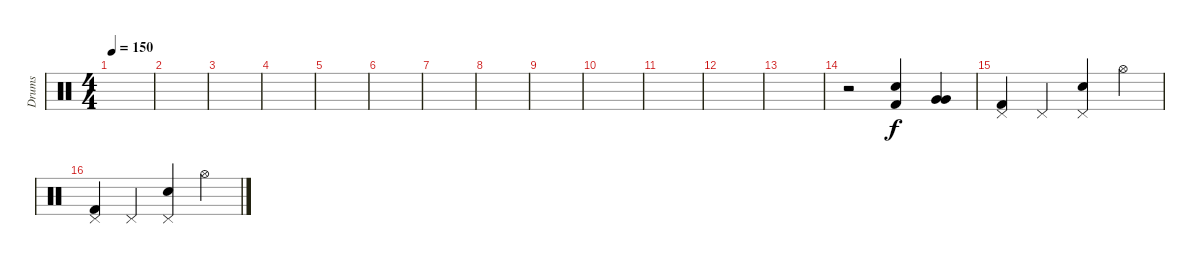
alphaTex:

\track ("Drums" "Drums") {instrument percussion}
\staff {score}
\articulation defaults
\ts (4 4)
\tempo 150
\clef neutral
\ks c
|
|
|
|
|
|
|
|
|
|
|
|
|
r.2 ("Electric Snare (hit)" "Kick (hit) 2").4 ("Very Low Tom (hit)" "Very Low Tom (hit)").4 |
("Pedal Hi-Hat (hit)" "Kick (hit) 2").4 "Pedal Hi-Hat (hit)".4 ("Pedal Hi-Hat (hit)" "Electric Snare (hit)").4 "Hi-Hat (open)".4 |
("Pedal Hi-Hat (hit)" "Kick (hit) 2").4 "Pedal Hi-Hat (hit)".4 ("Pedal Hi-Hat (hit)" "Electric Snare (hit)").4 "Hi-Hat (open)".4
